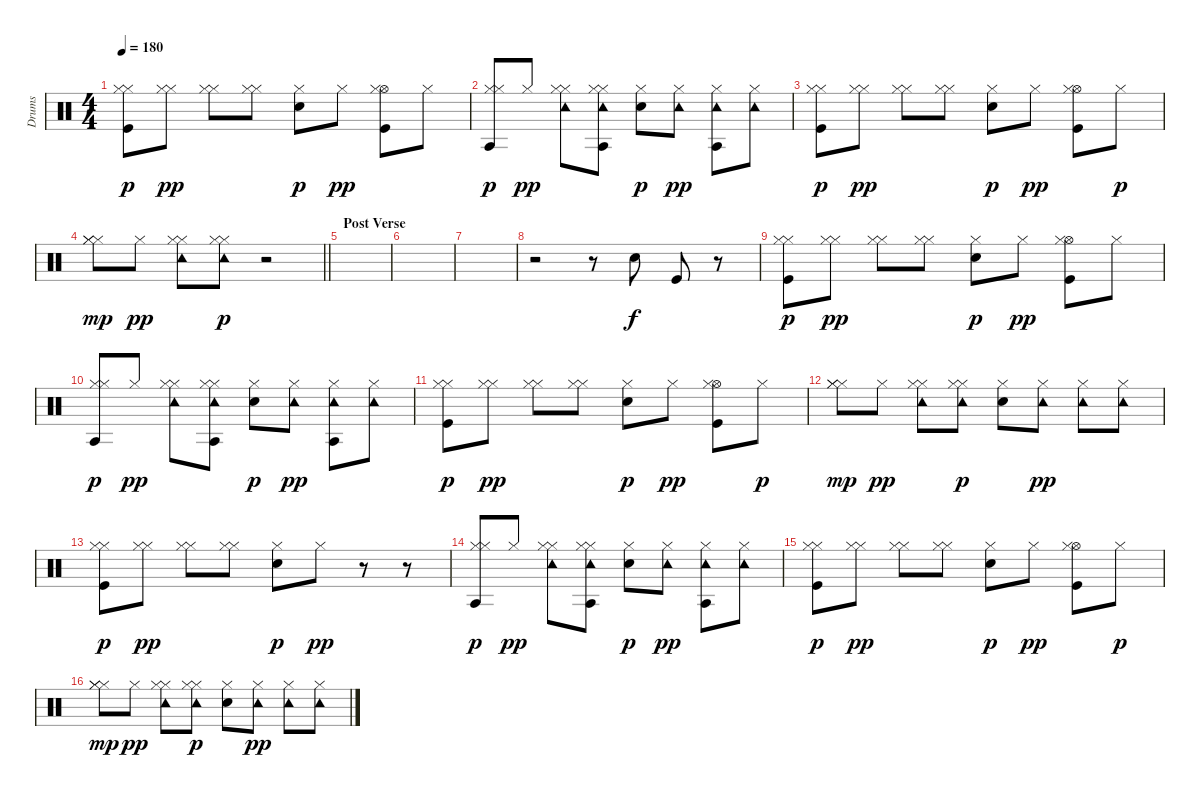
\track ("Drums" "Drums") {instrument percussion}
\staff {score}
\articulation defaults
\ts (4 4)
\tempo 180
\clef neutral
\ks c
("Hi-Hat (closed)" "Hi-Hat (closed)" "Kick (hit)").8{dy p} ("Hi-Hat (closed)" "Hi-Hat (closed)").8{dy pp} ("Hi-Hat (closed)" "Hi-Hat (closed)").8 ("Hi-Hat (closed)" "Hi-Hat (closed)").8 ("Electric Snare (hit)" "Hi-Hat (closed)").8{dy p} "Hi-Hat (closed)".8{dy pp} ("Hi-Hat (open)" "Hi-Hat (closed)" "Kick (hit)").8 "Hi-Hat (closed)".8 |
("Agogo tow (hit)" "Hi-Hat (closed)" "Hi-Hat (closed)").8{dy p} "Hi-Hat (closed)".8{dy pp} ("Tambourine (hit)" "Hi-Hat (closed)" "Hi-Hat (closed)").8 ("Tambourine (hit)" "Hi-Hat (closed)" "Hi-Hat (closed)" "Agogo tow (hit)").8 ("Electric Snare (hit)" "Hi-Hat (closed)").8{dy p} ("Tambourine (hit)" "Hi-Hat (closed)").8{dy pp} ("Tambourine (hit)" "Hi-Hat (closed)" "Agogo tow (hit)").8 ("Tambourine (hit)" "Hi-Hat (closed)").8 |
("Hi-Hat (closed)" "Hi-Hat (closed)" "Kick (hit)").8{dy p} ("Hi-Hat (closed)" "Hi-Hat (closed)").8{dy pp} ("Hi-Hat (closed)" "Hi-Hat (closed)").8 ("Hi-Hat (closed)" "Hi-Hat (closed)").8 ("Electric Snare (hit)" "Hi-Hat (closed)").8{dy p} "Hi-Hat (closed)".8{dy pp} ("Hi-Hat (open)" "Hi-Hat (closed)" "Kick (hit)").8 "Hi-Hat (closed)".8{dy p} |
\barLineRight lightlight
("Hi-Hat (closed)" "Hi-Hat (closed)" "Hi-Hat (closed)").8{dy mp} "Hi-Hat (closed)".8{dy pp} ("Tambourine (hit)" "Hi-Hat (closed)" "Hi-Hat (closed)").8 ("Tambourine (hit)" "Hi-Hat (closed)" "Hi-Hat (closed)").8{dy p} r.2 |
\section ("" "Post Verse")
|
|
|
r.2 r.8 "Electric Snare (hit)".8{dy f} "Kick (hit)".8 r.8 |
("Hi-Hat (closed)" "Hi-Hat (closed)" "Kick (hit)").8{dy p} ("Hi-Hat (closed)" "Hi-Hat (closed)").8{dy pp} ("Hi-Hat (closed)" "Hi-Hat (closed)").8 ("Hi-Hat (closed)" "Hi-Hat (closed)").8 ("Electric Snare (hit)" "Hi-Hat (closed)").8{dy p} "Hi-Hat (closed)".8{dy pp} ("Hi-Hat (open)" "Hi-Hat (closed)" "Kick (hit)").8 "Hi-Hat (closed)".8 |
("Agogo tow (hit)" "Hi-Hat (closed)" "Hi-Hat (closed)").8{dy p} "Hi-Hat (closed)".8{dy pp} ("Tambourine (hit)" "Hi-Hat (closed)" "Hi-Hat (closed)").8 ("Tambourine (hit)" "Hi-Hat (closed)" "Hi-Hat (closed)" "Agogo tow (hit)").8 ("Electric Snare (hit)" "Hi-Hat (closed)").8{dy p} ("Tambourine (hit)" "Hi-Hat (closed)").8{dy pp} ("Tambourine (hit)" "Hi-Hat (closed)" "Agogo tow (hit)").8 ("Tambourine (hit)" "Hi-Hat (closed)").8 |
("Hi-Hat (closed)" "Hi-Hat (closed)" "Kick (hit)").8{dy p} ("Hi-Hat (closed)" "Hi-Hat (closed)").8{dy pp} ("Hi-Hat (closed)" "Hi-Hat (closed)").8 ("Hi-Hat (closed)" "Hi-Hat (closed)").8 ("Electric Snare (hit)" "Hi-Hat (closed)").8{dy p} "Hi-Hat (closed)".8{dy pp} ("Hi-Hat (open)" "Hi-Hat (closed)" "Kick (hit)").8 "Hi-Hat (closed)".8{dy p} |
("Hi-Hat (closed)" "Hi-Hat (closed)" "Hi-Hat (closed)").8{dy mp} "Hi-Hat (closed)".8{dy pp} ("Tambourine (hit)" "Hi-Hat (closed)" "Hi-Hat (closed)").8 ("Tambourine (hit)" "Hi-Hat (closed)" "Hi-Hat (closed)").8{dy p} ("Electric Snare (hit)" "Hi-Hat (closed)").8 ("Tambourine (hit)" "Hi-Hat (closed)").8{dy pp} ("Tambourine (hit)" "Hi-Hat (closed)").8 ("Tambourine (hit)" "Hi-Hat (closed)").8 |
("Hi-Hat (closed)" "Hi-Hat (closed)" "Kick (hit)").8{dy p} ("Hi-Hat (closed)" "Hi-Hat (closed)").8{dy pp} ("Hi-Hat (closed)" "Hi-Hat (closed)").8 ("Hi-Hat (closed)" "Hi-Hat (closed)").8 ("Electric Snare (hit)" "Hi-Hat (closed)").8{dy p} "Hi-Hat (closed)".8{dy pp} r.8 r.8 |
("Agogo tow (hit)" "Hi-Hat (closed)" "Hi-Hat (closed)").8{dy p} "Hi-Hat (closed)".8{dy pp} ("Tambourine (hit)" "Hi-Hat (closed)" "Hi-Hat (closed)").8 ("Tambourine (hit)" "Hi-Hat (closed)" "Hi-Hat (closed)" "Agogo tow (hit)").8 ("Electric Snare (hit)" "Hi-Hat (closed)").8{dy p} ("Tambourine (hit)" "Hi-Hat (closed)").8{dy pp} ("Tambourine (hit)" "Hi-Hat (closed)" "Agogo tow (hit)").8 ("Tambourine (hit)" "Hi-Hat (closed)").8 |
("Hi-Hat (closed)" "Hi-Hat (closed)" "Kick (hit)").8{dy p} ("Hi-Hat (closed)" "Hi-Hat (closed)").8{dy pp} ("Hi-Hat (closed)" "Hi-Hat (closed)").8 ("Hi-Hat (closed)" "Hi-Hat (closed)").8 ("Electric Snare (hit)" "Hi-Hat (closed)").8{dy p} "Hi-Hat (closed)".8{dy pp} ("Hi-Hat (open)" "Hi-Hat (closed)" "Kick (hit)").8 "Hi-Hat (closed)".8{dy p} |
("Hi-Hat (closed)" "Hi-Hat (closed)" "Hi-Hat (closed)").8{dy mp} "Hi-Hat (closed)".8{dy pp} ("Tambourine (hit)" "Hi-Hat (closed)" "Hi-Hat (closed)").8 ("Tambourine (hit)" "Hi-Hat (closed)" "Hi-Hat (closed)").8{dy p} ("Electric Snare (hit)" "Hi-Hat (closed)").8 ("Tambourine (hit)" "Hi-Hat (closed)").8{dy pp} ("Tambourine (hit)" "Hi-Hat (closed)").8 ("Tambourine (hit)" "Hi-Hat (closed)").8
